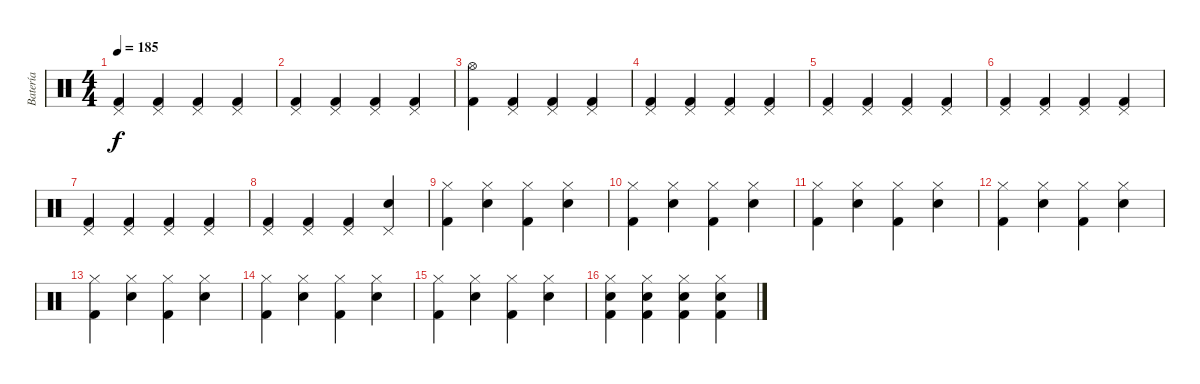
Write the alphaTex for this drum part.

\track ("Batería" "Batería") {instrument percussion}
\staff {score}
\articulation defaults
\ts (4 4)
\tempo 185
\clef neutral
\ks c
("Pedal Hi-Hat (hit)" "Kick (hit) 2").4{dy f} ("Pedal Hi-Hat (hit)" "Kick (hit) 2").4 ("Pedal Hi-Hat (hit)" "Kick (hit) 2").4 ("Pedal Hi-Hat (hit)" "Kick (hit) 2").4 |
("Pedal Hi-Hat (hit)" "Kick (hit) 2").4 ("Pedal Hi-Hat (hit)" "Kick (hit) 2").4 ("Pedal Hi-Hat (hit)" "Kick (hit) 2").4 ("Pedal Hi-Hat (hit)" "Kick (hit) 2").4 |
("Hi-Hat (open)" "Kick (hit) 2").4 ("Pedal Hi-Hat (hit)" "Kick (hit) 2").4 ("Pedal Hi-Hat (hit)" "Kick (hit) 2").4 ("Pedal Hi-Hat (hit)" "Kick (hit) 2").4 |
("Pedal Hi-Hat (hit)" "Kick (hit) 2").4 ("Pedal Hi-Hat (hit)" "Kick (hit) 2").4 ("Pedal Hi-Hat (hit)" "Kick (hit) 2").4 ("Pedal Hi-Hat (hit)" "Kick (hit) 2").4 |
("Pedal Hi-Hat (hit)" "Kick (hit) 2").4 ("Pedal Hi-Hat (hit)" "Kick (hit) 2").4 ("Pedal Hi-Hat (hit)" "Kick (hit) 2").4 ("Pedal Hi-Hat (hit)" "Kick (hit) 2").4 |
("Pedal Hi-Hat (hit)" "Kick (hit) 2").4 ("Pedal Hi-Hat (hit)" "Kick (hit) 2").4 ("Pedal Hi-Hat (hit)" "Kick (hit) 2").4 ("Pedal Hi-Hat (hit)" "Kick (hit) 2").4 |
("Pedal Hi-Hat (hit)" "Kick (hit) 2").4 ("Pedal Hi-Hat (hit)" "Kick (hit) 2").4 ("Pedal Hi-Hat (hit)" "Kick (hit) 2").4 ("Pedal Hi-Hat (hit)" "Kick (hit) 2").4 |
("Pedal Hi-Hat (hit)" "Kick (hit) 2").4 ("Pedal Hi-Hat (hit)" "Kick (hit) 2").4 ("Pedal Hi-Hat (hit)" "Kick (hit) 2").4 ("Pedal Hi-Hat (hit)" "Snare (hit) 2").4 |
("Hi-Hat (closed)" "Kick (hit) 2").4 ("Hi-Hat (closed)" "Snare (hit) 2").4 ("Hi-Hat (closed)" "Kick (hit) 2").4 ("Hi-Hat (closed)" "Snare (hit) 2").4 |
("Hi-Hat (closed)" "Kick (hit) 2").4 ("Hi-Hat (closed)" "Snare (hit) 2").4 ("Hi-Hat (closed)" "Kick (hit) 2").4 ("Hi-Hat (closed)" "Snare (hit) 2").4 |
("Hi-Hat (closed)" "Kick (hit) 2").4 ("Hi-Hat (closed)" "Snare (hit) 2").4 ("Hi-Hat (closed)" "Kick (hit) 2").4 ("Hi-Hat (closed)" "Snare (hit) 2").4 |
("Hi-Hat (closed)" "Kick (hit) 2").4 ("Hi-Hat (closed)" "Snare (hit) 2").4 ("Hi-Hat (closed)" "Kick (hit) 2").4 ("Hi-Hat (closed)" "Snare (hit) 2").4 |
("Hi-Hat (closed)" "Kick (hit) 2").4 ("Hi-Hat (closed)" "Snare (hit) 2").4 ("Hi-Hat (closed)" "Kick (hit) 2").4 ("Hi-Hat (closed)" "Snare (hit) 2").4 |
("Hi-Hat (closed)" "Kick (hit) 2").4 ("Hi-Hat (closed)" "Snare (hit) 2").4 ("Hi-Hat (closed)" "Kick (hit) 2").4 ("Hi-Hat (closed)" "Snare (hit) 2").4 |
("Hi-Hat (closed)" "Kick (hit) 2").4 ("Hi-Hat (closed)" "Snare (hit) 2").4 ("Hi-Hat (closed)" "Kick (hit) 2").4 ("Hi-Hat (closed)" "Snare (hit) 2").4 |
("Kick (hit) 2" "Hi-Hat (closed)" "Snare (hit) 2").4 ("Kick (hit) 2" "Hi-Hat (closed)" "Snare (hit) 2").4 ("Kick (hit) 2" "Hi-Hat (closed)" "Snare (hit) 2").4 ("Kick (hit) 2" "Hi-Hat (closed)" "Snare (hit) 2").4
